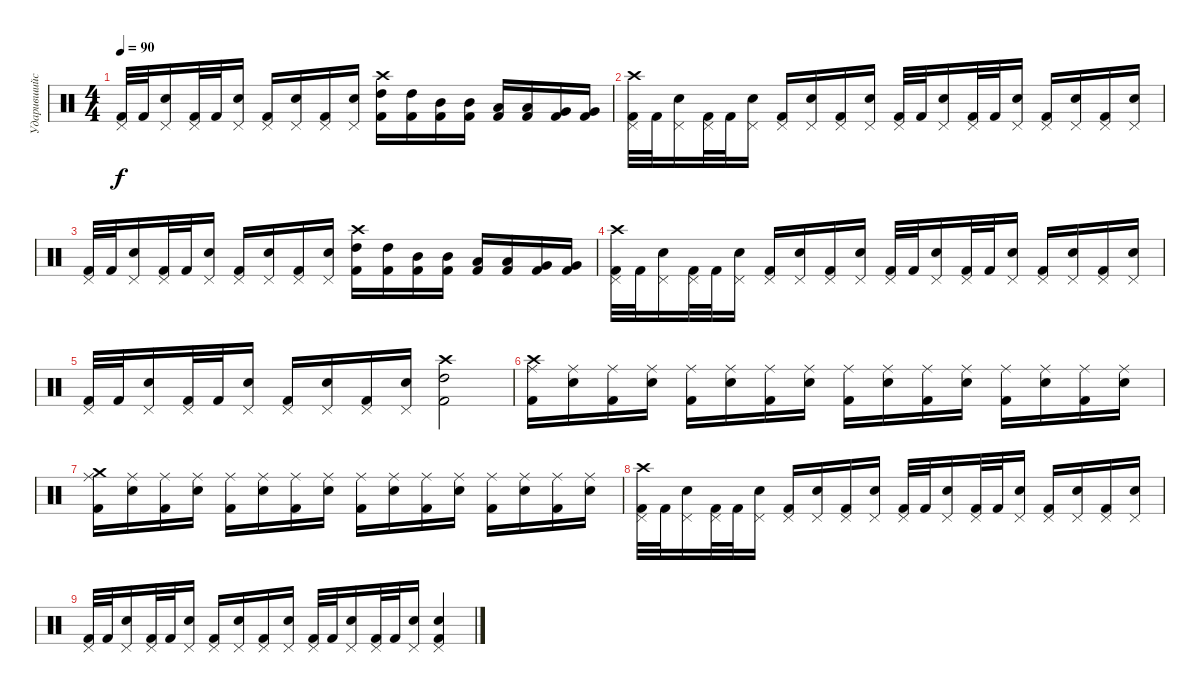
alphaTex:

\track ("Ударившийся" "Ударившийс") {instrument percussion}
\staff {score}
\articulation defaults
\ts (4 4)
\tempo 90
\clef neutral
\ks c
("Kick (hit) 2" "Pedal Hi-Hat (hit)").32{dy f} "Kick (hit) 2".32 ("Snare (hit) 2" "Pedal Hi-Hat (hit)").16 ("Kick (hit) 2" "Pedal Hi-Hat (hit)").32 "Kick (hit) 2".32 ("Snare (hit) 2" "Pedal Hi-Hat (hit)").16 ("Kick (hit) 2" "Pedal Hi-Hat (hit)").16 ("Snare (hit) 2" "Pedal Hi-Hat (hit)").16 ("Kick (hit) 2" "Pedal Hi-Hat (hit)").16 ("Snare (hit) 2" "Pedal Hi-Hat (hit)").16 ("High Tom (hit)" "Kick (hit) 2" "Crash high (hit)").16 ("High Tom (hit)" "Kick (hit) 2").16 ("Mid Tom (hit)" "Kick (hit) 2").16 ("Mid Tom (hit)" "Kick (hit) 2").16 ("Low Tom (hit)" "Kick (hit) 2").16 ("Low Tom (hit)" "Kick (hit) 2").16 ("Very Low Tom (hit)" "Kick (hit) 2").16 ("Very Low Tom (hit)" "Kick (hit) 2").16 |
("Kick (hit) 2" "Crash high (hit)" "Pedal Hi-Hat (hit)").32 "Kick (hit) 2".32 ("Snare (hit) 2" "Pedal Hi-Hat (hit)").16 ("Kick (hit) 2" "Pedal Hi-Hat (hit)").32 "Kick (hit) 2".32 ("Snare (hit) 2" "Pedal Hi-Hat (hit)").16 ("Kick (hit) 2" "Pedal Hi-Hat (hit)").16 ("Snare (hit) 2" "Pedal Hi-Hat (hit)").16 ("Kick (hit) 2" "Pedal Hi-Hat (hit)").16 ("Snare (hit) 2" "Pedal Hi-Hat (hit)").16 ("Kick (hit) 2" "Pedal Hi-Hat (hit)").32 "Kick (hit) 2".32 ("Snare (hit) 2" "Pedal Hi-Hat (hit)").16 ("Kick (hit) 2" "Pedal Hi-Hat (hit)").32 "Kick (hit) 2".32 ("Snare (hit) 2" "Pedal Hi-Hat (hit)").16 ("Kick (hit) 2" "Pedal Hi-Hat (hit)").16 ("Snare (hit) 2" "Pedal Hi-Hat (hit)").16 ("Kick (hit) 2" "Pedal Hi-Hat (hit)").16 ("Snare (hit) 2" "Pedal Hi-Hat (hit)").16 |
("Kick (hit) 2" "Pedal Hi-Hat (hit)").32 "Kick (hit) 2".32 ("Snare (hit) 2" "Pedal Hi-Hat (hit)").16 ("Kick (hit) 2" "Pedal Hi-Hat (hit)").32 "Kick (hit) 2".32 ("Snare (hit) 2" "Pedal Hi-Hat (hit)").16 ("Kick (hit) 2" "Pedal Hi-Hat (hit)").16 ("Snare (hit) 2" "Pedal Hi-Hat (hit)").16 ("Kick (hit) 2" "Pedal Hi-Hat (hit)").16 ("Snare (hit) 2" "Pedal Hi-Hat (hit)").16 ("High Tom (hit)" "Kick (hit) 2" "Crash high (hit)").16 ("High Tom (hit)" "Kick (hit) 2").16 ("Mid Tom (hit)" "Kick (hit) 2").16 ("Mid Tom (hit)" "Kick (hit) 2").16 ("Low Tom (hit)" "Kick (hit) 2").16 ("Low Tom (hit)" "Kick (hit) 2").16 ("Very Low Tom (hit)" "Kick (hit) 2").16 ("Very Low Tom (hit)" "Kick (hit) 2").16 |
("Kick (hit) 2" "Crash high (hit)" "Pedal Hi-Hat (hit)").32 "Kick (hit) 2".32 ("Snare (hit) 2" "Pedal Hi-Hat (hit)").16 ("Kick (hit) 2" "Pedal Hi-Hat (hit)").32 "Kick (hit) 2".32 ("Snare (hit) 2" "Pedal Hi-Hat (hit)").16 ("Kick (hit) 2" "Pedal Hi-Hat (hit)").16 ("Snare (hit) 2" "Pedal Hi-Hat (hit)").16 ("Kick (hit) 2" "Pedal Hi-Hat (hit)").16 ("Snare (hit) 2" "Pedal Hi-Hat (hit)").16 ("Kick (hit) 2" "Pedal Hi-Hat (hit)").32 "Kick (hit) 2".32 ("Snare (hit) 2" "Pedal Hi-Hat (hit)").16 ("Kick (hit) 2" "Pedal Hi-Hat (hit)").32 "Kick (hit) 2".32 ("Snare (hit) 2" "Pedal Hi-Hat (hit)").16 ("Kick (hit) 2" "Pedal Hi-Hat (hit)").16 ("Snare (hit) 2" "Pedal Hi-Hat (hit)").16 ("Kick (hit) 2" "Pedal Hi-Hat (hit)").16 ("Snare (hit) 2" "Pedal Hi-Hat (hit)").16 |
("Kick (hit) 2" "Pedal Hi-Hat (hit)").32 "Kick (hit) 2".32 ("Snare (hit) 2" "Pedal Hi-Hat (hit)").16 ("Kick (hit) 2" "Pedal Hi-Hat (hit)").32 "Kick (hit) 2".32 ("Snare (hit) 2" "Pedal Hi-Hat (hit)").16 ("Kick (hit) 2" "Pedal Hi-Hat (hit)").16 ("Snare (hit) 2" "Pedal Hi-Hat (hit)").16 ("Kick (hit) 2" "Pedal Hi-Hat (hit)").16 ("Snare (hit) 2" "Pedal Hi-Hat (hit)").16 ("High Tom (hit)" "Kick (hit) 2" "Crash high (hit)").2 |
("Kick (hit) 2" "Ride (middle)" "Crash high (hit)").16 ("Snare (hit) 2" "Ride (middle)").16 ("Kick (hit) 2" "Ride (middle)").16 ("Snare (hit) 2" "Ride (middle)").16 ("Kick (hit) 2" "Ride (middle)").16 ("Snare (hit) 2" "Ride (middle)").16 ("Kick (hit) 2" "Ride (middle)").16 ("Snare (hit) 2" "Ride (middle)").16 ("Kick (hit) 2" "Ride (middle)").16 ("Snare (hit) 2" "Ride (middle)").16 ("Kick (hit) 2" "Ride (middle)").16 ("Snare (hit) 2" "Ride (middle)").16 ("Kick (hit) 2" "Ride (middle)").16 ("Snare (hit) 2" "Ride (middle)").16 ("Kick (hit) 2" "Ride (middle)").16 ("Snare (hit) 2" "Ride (middle)").16 |
("Kick (hit) 2" "Ride (middle)" "Crash medium (hit)").16 ("Snare (hit) 2" "Ride (middle)").16 ("Kick (hit) 2" "Ride (middle)").16 ("Snare (hit) 2" "Ride (middle)").16 ("Kick (hit) 2" "Ride (middle)").16 ("Snare (hit) 2" "Ride (middle)").16 ("Kick (hit) 2" "Ride (middle)").16 ("Snare (hit) 2" "Ride (middle)").16 ("Kick (hit) 2" "Ride (middle)").16 ("Snare (hit) 2" "Ride (middle)").16 ("Kick (hit) 2" "Ride (middle)").16 ("Snare (hit) 2" "Ride (middle)").16 ("Kick (hit) 2" "Ride (middle)").16 ("Snare (hit) 2" "Ride (middle)").16 ("Kick (hit) 2" "Ride (middle)").16 ("Snare (hit) 2" "Ride (middle)").16 |
("Kick (hit) 2" "Crash high (hit)" "Pedal Hi-Hat (hit)").32 "Kick (hit) 2".32 ("Snare (hit) 2" "Pedal Hi-Hat (hit)").16 ("Kick (hit) 2" "Pedal Hi-Hat (hit)").32 "Kick (hit) 2".32 ("Snare (hit) 2" "Pedal Hi-Hat (hit)").16 ("Kick (hit) 2" "Pedal Hi-Hat (hit)").16 ("Snare (hit) 2" "Pedal Hi-Hat (hit)").16 ("Kick (hit) 2" "Pedal Hi-Hat (hit)").16 ("Snare (hit) 2" "Pedal Hi-Hat (hit)").16 ("Kick (hit) 2" "Pedal Hi-Hat (hit)").32 "Kick (hit) 2".32 ("Snare (hit) 2" "Pedal Hi-Hat (hit)").16 ("Kick (hit) 2" "Pedal Hi-Hat (hit)").32 "Kick (hit) 2".32 ("Snare (hit) 2" "Pedal Hi-Hat (hit)").16 ("Kick (hit) 2" "Pedal Hi-Hat (hit)").16 ("Snare (hit) 2" "Pedal Hi-Hat (hit)").16 ("Kick (hit) 2" "Pedal Hi-Hat (hit)").16 ("Snare (hit) 2" "Pedal Hi-Hat (hit)").16 |
("Kick (hit) 2" "Pedal Hi-Hat (hit)").32 "Kick (hit) 2".32 ("Snare (hit) 2" "Pedal Hi-Hat (hit)").16 ("Kick (hit) 2" "Pedal Hi-Hat (hit)").32 "Kick (hit) 2".32 ("Snare (hit) 2" "Pedal Hi-Hat (hit)").16 ("Kick (hit) 2" "Pedal Hi-Hat (hit)").16 ("Snare (hit) 2" "Pedal Hi-Hat (hit)").16 ("Kick (hit) 2" "Pedal Hi-Hat (hit)").16 ("Snare (hit) 2" "Pedal Hi-Hat (hit)").16 ("Kick (hit) 2" "Pedal Hi-Hat (hit)").32 "Kick (hit) 2".32 ("Snare (hit) 2" "Pedal Hi-Hat (hit)").16 ("Kick (hit) 2" "Pedal Hi-Hat (hit)").32 "Kick (hit) 2".32 ("Snare (hit) 2" "Pedal Hi-Hat (hit)").16 ("Snare (hit) 2" "Kick (hit) 2" "Pedal Hi-Hat (hit)").4
